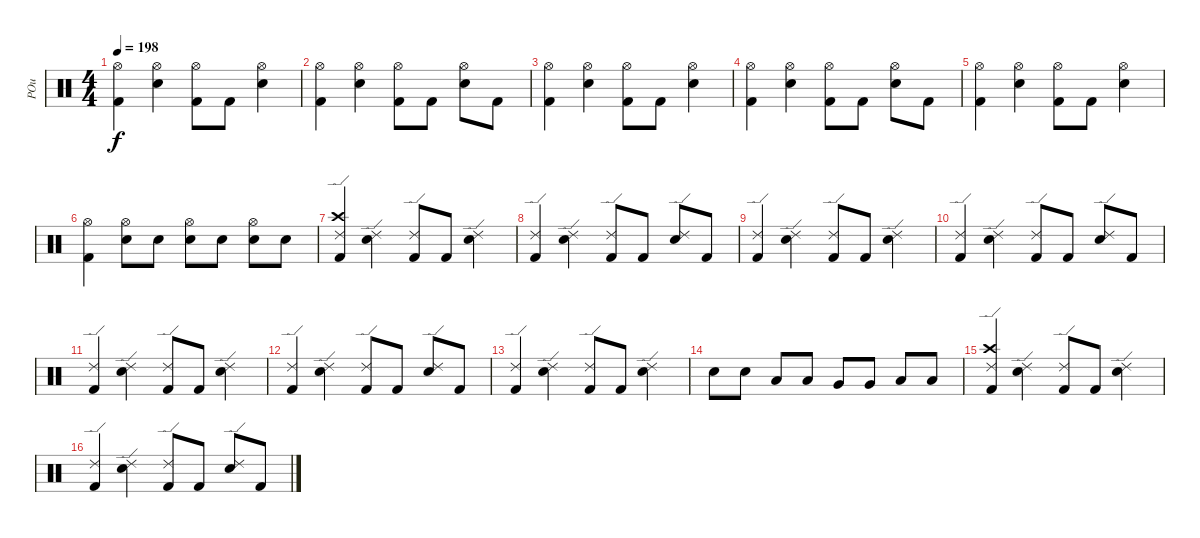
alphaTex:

\track ("POu" "POu") {instrument percussion}
\staff {score}
\articulation defaults
\ts (4 4)
\tempo 198
\clef neutral
\ks c
("Kick (hit) 2" "Hi-Hat (open)").4{dy f} ("Electric Snare (hit)" "Hi-Hat (open)").4 ("Kick (hit) 2" "Hi-Hat (open)").8 "Kick (hit) 2".8 ("Electric Snare (hit)" "Hi-Hat (open)").4 |
("Kick (hit) 2" "Hi-Hat (open)").4 ("Electric Snare (hit)" "Hi-Hat (open)").4 ("Kick (hit) 2" "Hi-Hat (open)").8 "Kick (hit) 2".8 ("Electric Snare (hit)" "Hi-Hat (open)").8 "Kick (hit) 2".8 |
("Kick (hit) 2" "Hi-Hat (open)").4 ("Electric Snare (hit)" "Hi-Hat (open)").4 ("Kick (hit) 2" "Hi-Hat (open)").8 "Kick (hit) 2".8 ("Electric Snare (hit)" "Hi-Hat (open)").4 |
("Kick (hit) 2" "Hi-Hat (open)").4 ("Electric Snare (hit)" "Hi-Hat (open)").4 ("Kick (hit) 2" "Hi-Hat (open)").8 "Kick (hit) 2".8 ("Electric Snare (hit)" "Hi-Hat (open)").8 "Kick (hit) 2".8 |
("Kick (hit) 2" "Hi-Hat (open)").4 ("Electric Snare (hit)" "Hi-Hat (open)").4 ("Kick (hit) 2" "Hi-Hat (open)").8 "Kick (hit) 2".8 ("Electric Snare (hit)" "Hi-Hat (open)").4 |
("Kick (hit) 2" "Hi-Hat (open)").4 ("Electric Snare (hit)" "Hi-Hat (open)").8 "Electric Snare (hit)".8 ("Electric Snare (hit)" "Hi-Hat (open)").8 "Electric Snare (hit)".8 ("Electric Snare (hit)" "Hi-Hat (open)").8 "Electric Snare (hit)".8 |
("Crash high (hit)" "Kick (hit) 2" "Ride (edge) 2").4 ("Electric Snare (hit)" "Ride (edge) 2").4 ("Kick (hit) 2" "Ride (edge) 2").8 "Kick (hit) 2".8 ("Electric Snare (hit)" "Ride (edge) 2").4 |
("Kick (hit) 2" "Ride (edge) 2").4 ("Electric Snare (hit)" "Ride (edge) 2").4 ("Kick (hit) 2" "Ride (edge) 2").8 "Kick (hit) 2".8 ("Electric Snare (hit)" "Ride (edge) 2").8 "Kick (hit) 2".8 |
("Kick (hit) 2" "Ride (edge) 2").4 ("Electric Snare (hit)" "Ride (edge) 2").4 ("Kick (hit) 2" "Ride (edge) 2").8 "Kick (hit) 2".8 ("Electric Snare (hit)" "Ride (edge) 2").4 |
("Kick (hit) 2" "Ride (edge) 2").4 ("Electric Snare (hit)" "Ride (edge) 2").4 ("Kick (hit) 2" "Ride (edge) 2").8 "Kick (hit) 2".8 ("Electric Snare (hit)" "Ride (edge) 2").8 "Kick (hit) 2".8 |
("Kick (hit) 2" "Ride (edge) 2").4 ("Electric Snare (hit)" "Ride (edge) 2").4 ("Kick (hit) 2" "Ride (edge) 2").8 "Kick (hit) 2".8 ("Electric Snare (hit)" "Ride (edge) 2").4 |
("Kick (hit) 2" "Ride (edge) 2").4 ("Electric Snare (hit)" "Ride (edge) 2").4 ("Kick (hit) 2" "Ride (edge) 2").8 "Kick (hit) 2".8 ("Electric Snare (hit)" "Ride (edge) 2").8 "Kick (hit) 2".8 |
("Kick (hit) 2" "Ride (edge) 2").4 ("Electric Snare (hit)" "Ride (edge) 2").4 ("Kick (hit) 2" "Ride (edge) 2").8 "Kick (hit) 2".8 ("Electric Snare (hit)" "Ride (edge) 2").4 |
"Electric Snare (hit)".8 "Electric Snare (hit)".8 "Low Tom (hit)".8 "Low Tom (hit)".8 "Very Low Tom (hit)".8 "Very Low Tom (hit)".8 "Low Floor Tom (hit)".8 "Low Floor Tom (hit)".8 |
("Crash high (hit)" "Kick (hit) 2" "Ride (edge) 2").4 ("Electric Snare (hit)" "Ride (edge) 2").4 ("Kick (hit) 2" "Ride (edge) 2").8 "Kick (hit) 2".8 ("Electric Snare (hit)" "Ride (edge) 2").4 |
("Kick (hit) 2" "Ride (edge) 2").4 ("Electric Snare (hit)" "Ride (edge) 2").4 ("Kick (hit) 2" "Ride (edge) 2").8 "Kick (hit) 2".8 ("Electric Snare (hit)" "Ride (edge) 2").8 "Kick (hit) 2".8
